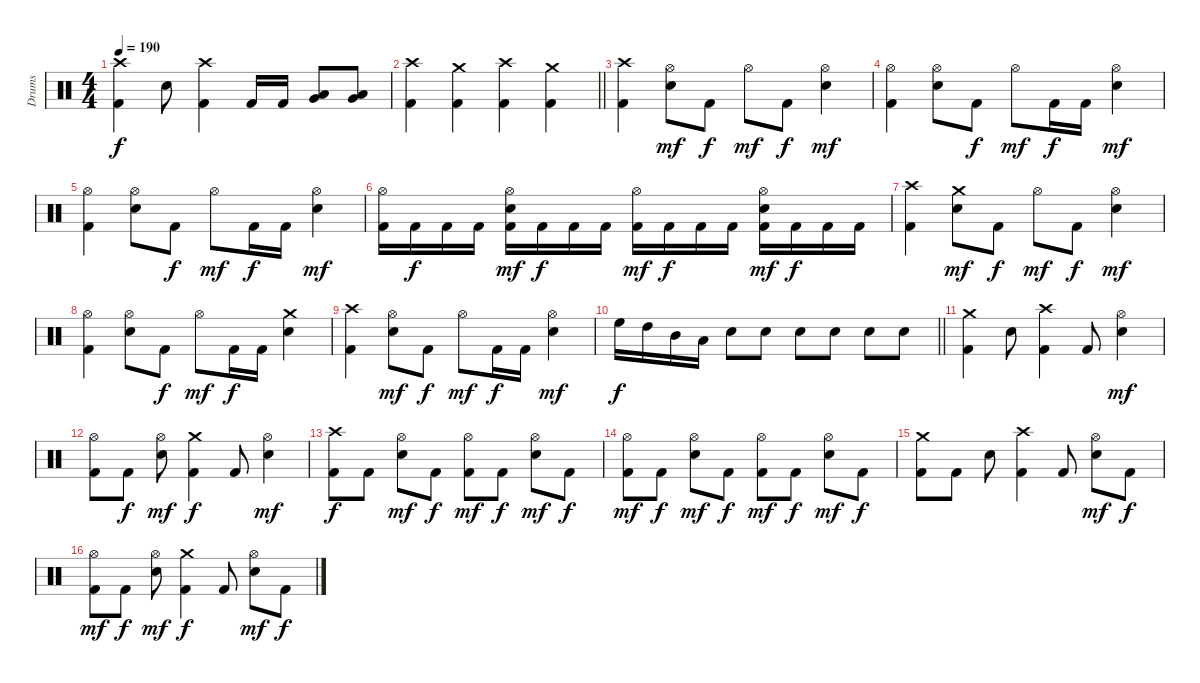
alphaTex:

\track ("Drums" "Drums") {instrument percussion}
\staff {score}
\articulation defaults
\ts (4 4)
\tempo 190
\clef neutral
\ks c
("Crash high (hit)" "Kick (hit) 2").4{dy f} "Electric Snare (hit)".8 ("Crash high (hit)" "Kick (hit) 2").4 "Kick (hit) 2".16 "Kick (hit) 2".16 ("Low Tom (hit)" "Very Low Tom (hit)").8 ("Low Tom (hit)" "Very Low Tom (hit)").8 |
\barLineRight lightlight
("Crash high (hit)" "Kick (hit) 2").4 ("Crash medium (hit)" "Kick (hit) 2").4 ("Crash high (hit)" "Kick (hit) 2").4 ("Crash medium (hit)" "Kick (hit) 2").4 |
("Crash high (hit)" "Kick (hit) 2").4 ("Hi-Hat (open)" "Electric Snare (hit)").8{dy mf} "Kick (hit) 2".8{dy f} "Hi-Hat (open)".8{dy mf} "Kick (hit) 2".8{dy f} ("Hi-Hat (open)" "Electric Snare (hit)").4{dy mf} |
("Hi-Hat (open)" "Kick (hit) 2").4 ("Hi-Hat (open)" "Electric Snare (hit)").8 "Kick (hit) 2".8{dy f} "Hi-Hat (open)".8{dy mf} "Kick (hit) 2".16{dy f} "Kick (hit) 2".16 ("Hi-Hat (open)" "Electric Snare (hit)").4{dy mf} |
("Hi-Hat (open)" "Kick (hit) 2").4 ("Hi-Hat (open)" "Electric Snare (hit)").8 "Kick (hit) 2".8{dy f} "Hi-Hat (open)".8{dy mf} "Kick (hit) 2".16{dy f} "Kick (hit) 2".16 ("Hi-Hat (open)" "Electric Snare (hit)").4{dy mf} |
("Hi-Hat (open)" "Kick (hit) 2").16 "Kick (hit) 2".16{dy f} "Kick (hit) 2".16 "Kick (hit) 2".16 ("Hi-Hat (open)" "Electric Snare (hit)" "Kick (hit) 2").16{dy mf} "Kick (hit) 2".16{dy f} "Kick (hit) 2".16 "Kick (hit) 2".16 ("Hi-Hat (open)" "Kick (hit) 2").16{dy mf} "Kick (hit) 2".16{dy f} "Kick (hit) 2".16 "Kick (hit) 2".16 ("Hi-Hat (open)" "Electric Snare (hit)" "Kick (hit) 2").16{dy mf} "Kick (hit) 2".16{dy f} "Kick (hit) 2".16 "Kick (hit) 2".16 |
("Crash high (hit)" "Kick (hit) 2").4 ("Crash medium (hit)" "Electric Snare (hit)").8{dy mf} "Kick (hit) 2".8{dy f} "Hi-Hat (open)".8{dy mf} "Kick (hit) 2".8{dy f} ("Hi-Hat (open)" "Electric Snare (hit)").4{dy mf} |
("Hi-Hat (open)" "Kick (hit) 2").4 ("Hi-Hat (open)" "Electric Snare (hit)").8 "Kick (hit) 2".8{dy f} "Hi-Hat (open)".8{dy mf} "Kick (hit) 2".16{dy f} "Kick (hit) 2".16 ("Crash medium (hit)" "Electric Snare (hit)").4 |
("Crash high (hit)" "Kick (hit) 2").4 ("Hi-Hat (open)" "Electric Snare (hit)").8{dy mf} "Kick (hit) 2".8{dy f} "Hi-Hat (open)".8{dy mf} "Kick (hit) 2".16{dy f} "Kick (hit) 2".16 ("Hi-Hat (open)" "Electric Snare (hit)").4{dy mf} |
\barLineRight lightlight "High Floor Tom (hit)".16{dy f} "High Tom (hit)".16 "Mid Tom (hit)".16 "Low Tom (hit)".16 "Electric Snare (hit)".8 "Electric Snare (hit)".8 "Electric Snare (hit)".8 "Electric Snare (hit)".8 "Electric Snare (hit)".8 "Electric Snare (hit)".8
|
("Crash medium (hit)" "Kick (hit) 2").4 "Electric Snare (hit)".8 ("Crash high (hit)" "Kick (hit) 2").4 "Kick (hit) 2".8 ("Hi-Hat (open)" "Electric Snare (hit)").4{dy mf} |
("Hi-Hat (open)" "Kick (hit) 2").8 "Kick (hit) 2".8{dy f} ("Hi-Hat (open)" "Electric Snare (hit)").8{dy mf} ("Crash medium (hit)" "Kick (hit) 2").4{dy f} "Kick (hit) 2".8 ("Hi-Hat (open)" "Electric Snare (hit)").4{dy mf} |
("Crash high (hit)" "Kick (hit) 2").8{dy f} "Kick (hit) 2".8 ("Hi-Hat (open)" "Electric Snare (hit)").8{dy mf} "Kick (hit) 2".8{dy f} ("Hi-Hat (open)" "Kick (hit) 2").8{dy mf} "Kick (hit) 2".8{dy f} ("Hi-Hat (open)" "Electric Snare (hit)").8{dy mf} "Kick (hit) 2".8{dy f} |
("Hi-Hat (open)" "Kick (hit) 2").8{dy mf} "Kick (hit) 2".8{dy f} ("Hi-Hat (open)" "Electric Snare (hit)").8{dy mf} "Kick (hit) 2".8{dy f} ("Hi-Hat (open)" "Kick (hit) 2").8{dy mf} "Kick (hit) 2".8{dy f} ("Hi-Hat (open)" "Electric Snare (hit)").8{dy mf} "Kick (hit) 2".8{dy f} |
("Crash medium (hit)" "Kick (hit) 2").8 "Kick (hit) 2".8 "Electric Snare (hit)".8 ("Crash high (hit)" "Kick (hit) 2").4 "Kick (hit) 2".8 ("Hi-Hat (open)" "Electric Snare (hit)").8{dy mf} "Kick (hit) 2".8{dy f} |
("Hi-Hat (open)" "Kick (hit) 2").8{dy mf} "Kick (hit) 2".8{dy f} ("Hi-Hat (open)" "Electric Snare (hit)").8{dy mf} ("Crash medium (hit)" "Kick (hit) 2").4{dy f} "Kick (hit) 2".8 ("Hi-Hat (open)" "Electric Snare (hit)").8{dy mf} "Kick (hit) 2".8{dy f}
